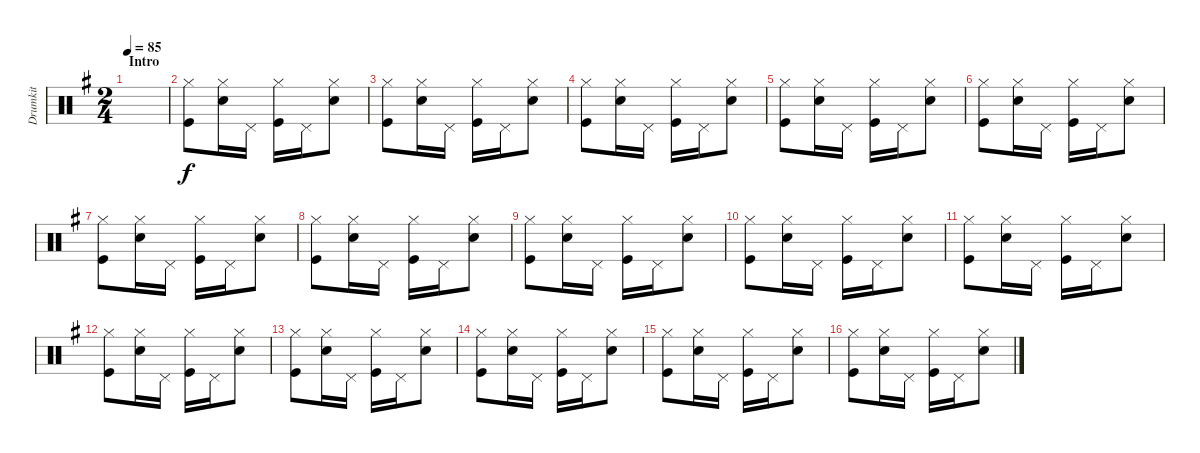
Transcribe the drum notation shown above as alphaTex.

\track ("Drumkit" "Drumkit") {instrument percussion}
\staff {score}
\articulation defaults
\ts (2 4)
\section ("" "Intro")
\tempo 85
\clef neutral
\ks g
|
("Kick (hit)" "Hi-Hat (closed)").8 ("Snare (hit) 2" "Hi-Hat (closed)").16 "Pedal Hi-Hat (hit)".16 ("Kick (hit)" "Hi-Hat (closed)").16 "Pedal Hi-Hat (hit)".16 ("Snare (hit) 2" "Hi-Hat (closed)").8 |
("Kick (hit)" "Hi-Hat (closed)").8 ("Snare (hit) 2" "Hi-Hat (closed)").16 "Pedal Hi-Hat (hit)".16 ("Kick (hit)" "Hi-Hat (closed)").16 "Pedal Hi-Hat (hit)".16 ("Snare (hit) 2" "Hi-Hat (closed)").8 |
("Kick (hit)" "Hi-Hat (closed)").8 ("Snare (hit) 2" "Hi-Hat (closed)").16 "Pedal Hi-Hat (hit)".16 ("Kick (hit)" "Hi-Hat (closed)").16 "Pedal Hi-Hat (hit)".16 ("Snare (hit) 2" "Hi-Hat (closed)").8 |
("Kick (hit)" "Hi-Hat (closed)").8 ("Snare (hit) 2" "Hi-Hat (closed)").16 "Pedal Hi-Hat (hit)".16 ("Kick (hit)" "Hi-Hat (closed)").16 "Pedal Hi-Hat (hit)".16 ("Snare (hit) 2" "Hi-Hat (closed)").8 |
("Kick (hit)" "Hi-Hat (closed)").8 ("Snare (hit) 2" "Hi-Hat (closed)").16 "Pedal Hi-Hat (hit)".16 ("Kick (hit)" "Hi-Hat (closed)").16 "Pedal Hi-Hat (hit)".16 ("Snare (hit) 2" "Hi-Hat (closed)").8 |
("Kick (hit)" "Hi-Hat (closed)").8 ("Snare (hit) 2" "Hi-Hat (closed)").16 "Pedal Hi-Hat (hit)".16 ("Kick (hit)" "Hi-Hat (closed)").16 "Pedal Hi-Hat (hit)".16 ("Snare (hit) 2" "Hi-Hat (closed)").8 |
("Kick (hit)" "Hi-Hat (closed)").8 ("Snare (hit) 2" "Hi-Hat (closed)").16 "Pedal Hi-Hat (hit)".16 ("Kick (hit)" "Hi-Hat (closed)").16 "Pedal Hi-Hat (hit)".16 ("Snare (hit) 2" "Hi-Hat (closed)").8 |
("Kick (hit)" "Hi-Hat (closed)").8 ("Snare (hit) 2" "Hi-Hat (closed)").16 "Pedal Hi-Hat (hit)".16 ("Kick (hit)" "Hi-Hat (closed)").16 "Pedal Hi-Hat (hit)".16 ("Snare (hit) 2" "Hi-Hat (closed)").8 |
("Kick (hit)" "Hi-Hat (closed)").8 ("Snare (hit) 2" "Hi-Hat (closed)").16 "Pedal Hi-Hat (hit)".16 ("Kick (hit)" "Hi-Hat (closed)").16 "Pedal Hi-Hat (hit)".16 ("Snare (hit) 2" "Hi-Hat (closed)").8 |
("Kick (hit)" "Hi-Hat (closed)").8 ("Snare (hit) 2" "Hi-Hat (closed)").16 "Pedal Hi-Hat (hit)".16 ("Kick (hit)" "Hi-Hat (closed)").16 "Pedal Hi-Hat (hit)".16 ("Snare (hit) 2" "Hi-Hat (closed)").8 |
("Kick (hit)" "Hi-Hat (closed)").8 ("Snare (hit) 2" "Hi-Hat (closed)").16 "Pedal Hi-Hat (hit)".16 ("Kick (hit)" "Hi-Hat (closed)").16 "Pedal Hi-Hat (hit)".16 ("Snare (hit) 2" "Hi-Hat (closed)").8 |
("Kick (hit)" "Hi-Hat (closed)").8 ("Snare (hit) 2" "Hi-Hat (closed)").16 "Pedal Hi-Hat (hit)".16 ("Kick (hit)" "Hi-Hat (closed)").16 "Pedal Hi-Hat (hit)".16 ("Snare (hit) 2" "Hi-Hat (closed)").8 |
("Kick (hit)" "Hi-Hat (closed)").8 ("Snare (hit) 2" "Hi-Hat (closed)").16 "Pedal Hi-Hat (hit)".16 ("Kick (hit)" "Hi-Hat (closed)").16 "Pedal Hi-Hat (hit)".16 ("Snare (hit) 2" "Hi-Hat (closed)").8 |
("Kick (hit)" "Hi-Hat (closed)").8 ("Snare (hit) 2" "Hi-Hat (closed)").16 "Pedal Hi-Hat (hit)".16 ("Kick (hit)" "Hi-Hat (closed)").16 "Pedal Hi-Hat (hit)".16 ("Snare (hit) 2" "Hi-Hat (closed)").8 |
("Kick (hit)" "Hi-Hat (closed)").8 ("Snare (hit) 2" "Hi-Hat (closed)").16 "Pedal Hi-Hat (hit)".16 ("Kick (hit)" "Hi-Hat (closed)").16 "Pedal Hi-Hat (hit)".16 ("Snare (hit) 2" "Hi-Hat (closed)").8
